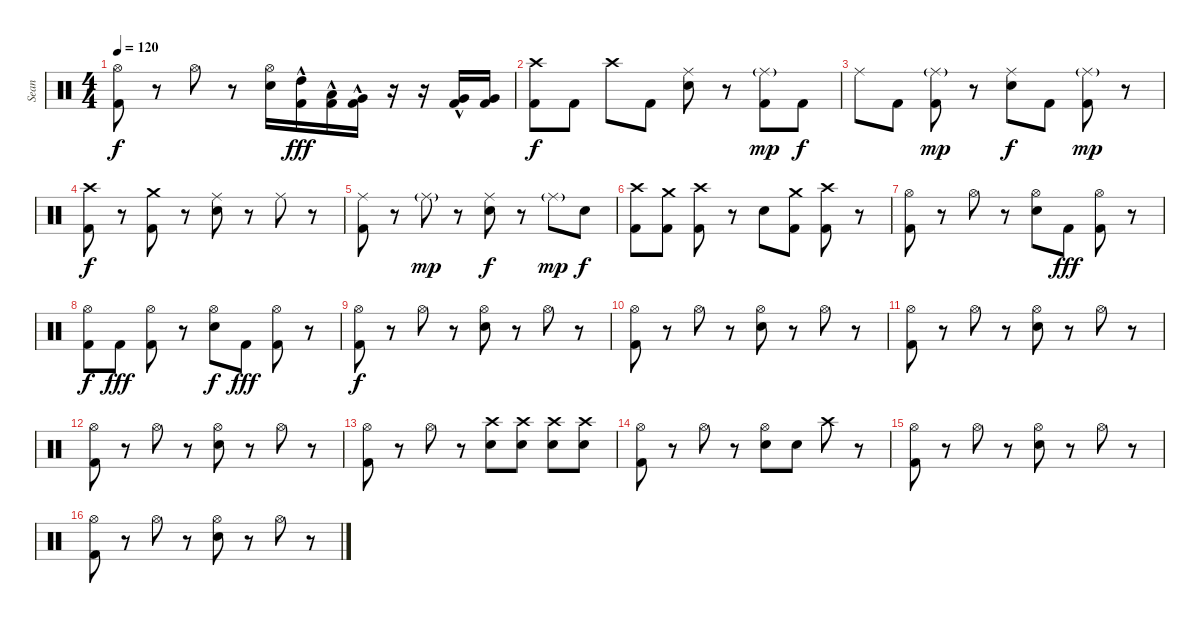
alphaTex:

\track ("Sean" "Sean") {instrument percussion}
\staff {score}
\articulation defaults
\ts (4 4)
\tempo 120
\clef neutral
\ks c
("Hi-Hat (open)" "Kick (hit) 2").8{dy f} r.8 "Hi-Hat (open)".8 r.8 ("Hi-Hat (open)" "Snare (hit) 2").16 ("High Tom (hit)" "Kick (hit) 2"{hac}).16{dy fff} ("Low Tom (hit)" "Kick (hit) 2"{hac}).16 ("Very Low Tom (hit)" "Kick (hit) 2"{hac}).16 r.16 r.16 ("Very Low Tom (hit)" "Kick (hit) 2"{hac}).16 ("Very Low Tom (hit)" "Kick (hit) 2").16 |
("Crash high (hit)" "Kick (hit) 2").8{dy f} "Kick (hit) 2".8 "Crash high (hit)".8 "Kick (hit) 2".8 ("Ride (middle)" "Snare (hit) 2").8 r.8 ("Ride (middle)"{g} "Kick (hit) 2").8{dy mp} "Kick (hit) 2".8{dy f} |
"Ride (middle)".8 "Kick (hit) 2".8 ("Ride (middle)"{g} "Kick (hit) 2").8{dy mp} r.8 ("Ride (middle)" "Snare (hit) 2").8{dy f} "Kick (hit) 2".8 ("Ride (middle)"{g} "Kick (hit) 2").8{dy mp} r.8 |
("Crash high (hit)" "Kick (hit) 2").8{dy f} r.8 ("Crash medium (hit)" "Kick (hit) 2").8 r.8 ("Ride (middle)" "Snare (hit) 2").8 r.8 "Ride (middle)".8 r.8 |
("Ride (middle)" "Kick (hit) 2").8 r.8 "Ride (middle)"{g}.8{dy mp} r.8 ("Ride (middle)" "Snare (hit) 2").8{dy f} r.8 "Ride (middle)"{g}.8{dy mp} "Snare (hit) 2".8{dy f} |
("Crash high (hit)" "Kick (hit) 2").8 ("Crash medium (hit)" "Kick (hit) 2").8 ("Crash high (hit)" "Kick (hit) 2").8 r.8 "Snare (hit) 2".8 ("Crash medium (hit)" "Kick (hit) 2").8 ("Crash high (hit)" "Kick (hit) 2").8 r.8 |
("Hi-Hat (open)" "Kick (hit) 2").8 r.8 "Hi-Hat (open)".8 r.8 ("Hi-Hat (open)" "Snare (hit) 2").8 "Kick (hit) 2".8{dy fff} ("Hi-Hat (open)" "Kick (hit) 2").8 r.8 |
("Hi-Hat (open)" "Kick (hit) 2").8{dy f} "Kick (hit) 2".8{dy fff} ("Hi-Hat (open)" "Kick (hit) 2").8 r.8 ("Hi-Hat (open)" "Snare (hit) 2").8{dy f} "Kick (hit) 2".8{dy fff} ("Hi-Hat (open)" "Kick (hit) 2").8 r.8 |
("Hi-Hat (open)" "Kick (hit) 2").8{dy f} r.8 "Hi-Hat (open)".8 r.8 ("Hi-Hat (open)" "Snare (hit) 2").8 r.8 "Hi-Hat (open)".8 r.8 |
("Hi-Hat (open)" "Kick (hit) 2").8 r.8 "Hi-Hat (open)".8 r.8 ("Hi-Hat (open)" "Snare (hit) 2").8 r.8 "Hi-Hat (open)".8 r.8 |
("Hi-Hat (open)" "Kick (hit) 2").8 r.8 "Hi-Hat (open)".8 r.8 ("Hi-Hat (open)" "Snare (hit) 2").8 r.8 "Hi-Hat (open)".8 r.8 |
("Hi-Hat (open)" "Kick (hit) 2").8 r.8 "Hi-Hat (open)".8 r.8 ("Hi-Hat (open)" "Snare (hit) 2").8 r.8 "Hi-Hat (open)".8 r.8 |
("Hi-Hat (open)" "Kick (hit) 2").8 r.8 "Hi-Hat (open)".8 r.8 ("Crash high (hit)" "Snare (hit) 2").8 ("Crash high (hit)" "Snare (hit) 2").8 ("Crash high (hit)" "Snare (hit) 2").8 ("Crash high (hit)" "Snare (hit) 2").8 |
("Hi-Hat (open)" "Kick (hit) 2").8 r.8 "Hi-Hat (open)".8 r.8 ("Hi-Hat (open)" "Snare (hit) 2").8 "Snare (hit) 2".8 "Crash high (hit)".8 r.8 |
("Hi-Hat (open)" "Kick (hit) 2").8 r.8 "Hi-Hat (open)".8 r.8 ("Hi-Hat (open)" "Snare (hit) 2").8 r.8 "Hi-Hat (open)".8 r.8 |
("Hi-Hat (open)" "Kick (hit) 2").8 r.8 "Hi-Hat (open)".8 r.8 ("Hi-Hat (open)" "Snare (hit) 2").8 r.8 "Hi-Hat (open)".8 r.8
